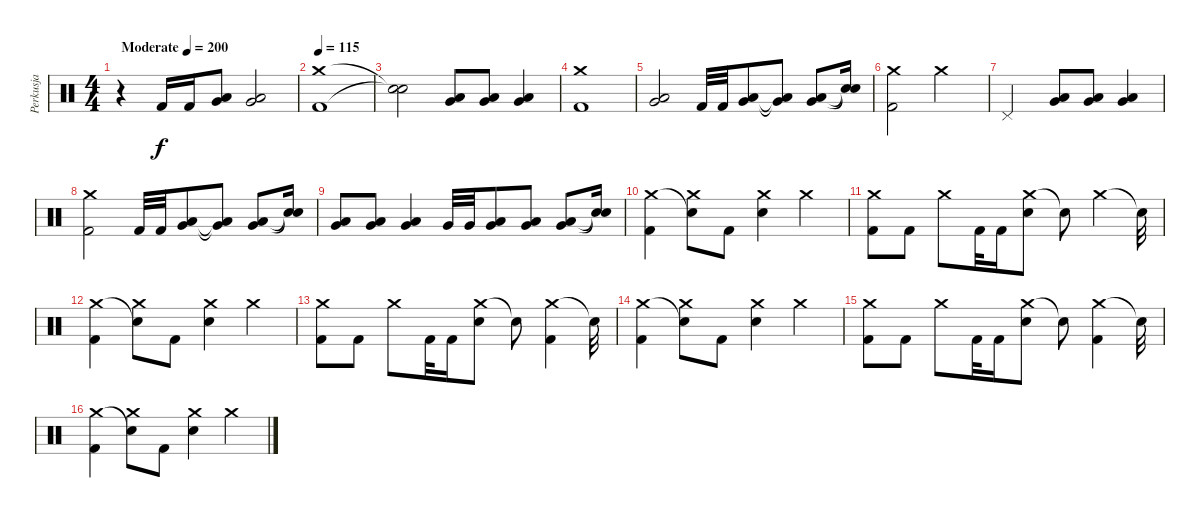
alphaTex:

\track ("Perkusja" "Perkusja") {instrument percussion}
\staff {score}
\articulation defaults
\ts (4 4)
\tempo (200 "Moderate")
\clef neutral
\ks c
r.4{dy f} "Kick (hit) 2".16 "Kick (hit) 2".16 ("Very Low Tom (hit)" "Low Floor Tom (hit)").8 ("Very Low Tom (hit)" "Low Floor Tom (hit)").2 |
\tempo 115
("Crash medium (hit)" "Kick (hit) 2").1 |
("Snare (hit)"{t} "Snare (hit)"{t}).2 ("Low Tom (hit)" "Very Low Tom (hit)").8 ("Low Tom (hit)" "Very Low Tom (hit)").8 ("Low Tom (hit)" "Very Low Tom (hit)").4 |
("Crash medium (hit)" "Kick (hit) 2").1 |
("Low Tom (hit)" "Very Low Tom (hit)").2 "Kick (hit) 2".32 "Kick (hit) 2".32 ("Low Tom (hit)" "Very Low Tom (hit)").8 ("Low Tom (hit)"{t} "Very Low Tom (hit)"{t}).8 ("Low Tom (hit)" "Very Low Tom (hit)").8 ("Snare (hit)"{t} "Snare (hit)"{t}).16 |
("Crash medium (hit)" "Kick (hit) 2").2 "Crash medium (hit)".2 |
"Pedal Hi-Hat (hit)".2 ("Low Tom (hit)" "Very Low Tom (hit)").8 ("Low Tom (hit)" "Very Low Tom (hit)").8 ("Low Tom (hit)" "Very Low Tom (hit)").4 |
("Crash medium (hit)" "Kick (hit) 2").2 "Kick (hit) 2".32 "Kick (hit) 2".32 ("Low Tom (hit)" "Very Low Tom (hit)").8 ("Low Tom (hit)"{t} "Very Low Tom (hit)"{t}).8 ("Low Tom (hit)" "Very Low Tom (hit)").8 ("Snare (hit)"{t} "Snare (hit)"{t}).16 |
("Low Tom (hit)" "Very Low Tom (hit)").8 ("Low Tom (hit)" "Very Low Tom (hit)").8 ("Low Tom (hit)" "Very Low Tom (hit)").4 "Very Low Tom (hit)".32 "Very Low Tom (hit)".32 ("Very Low Tom (hit)" "Low Floor Tom (hit)").8 ("Very Low Tom (hit)" "Low Floor Tom (hit)").8 ("Very Low Tom (hit)" "Low Floor Tom (hit)").8 ("Snare (hit)"{t} "Snare (hit)"{t}).16 |
("Crash medium (hit)" "Kick (hit) 2").4 ("Snare (hit)"{t} "Crash medium (hit)").8 "Kick (hit) 2".8 ("Crash medium (hit)" "Snare (hit) 2").4 "Crash medium (hit)".4 |
("Crash medium (hit)" "Kick (hit) 2").8 "Kick (hit) 2".8 "Crash medium (hit)".8 "Kick (hit) 2".32 "Kick (hit) 2".16 ("Crash medium (hit)" "Snare (hit) 2").8 "Snare (hit)"{t}.8 "Crash medium (hit)".4 "Snare (hit)"{t}.32 |
("Crash medium (hit)" "Kick (hit) 2").4 ("Snare (hit)"{t} "Crash medium (hit)").8 "Kick (hit) 2".8 ("Crash medium (hit)" "Snare (hit) 2").4 "Crash medium (hit)".4 |
("Crash medium (hit)" "Kick (hit) 2").8 "Kick (hit) 2".8 "Crash medium (hit)".8 "Kick (hit) 2".32 "Kick (hit) 2".16 ("Crash medium (hit)" "Snare (hit) 2").8 "Snare (hit)"{t}.8 ("Crash medium (hit)" "Kick (hit) 2").4 "Snare (hit)"{t}.32 |
("Crash medium (hit)" "Kick (hit) 2").4 ("Snare (hit)"{t} "Crash medium (hit)").8 "Kick (hit) 2".8 ("Crash medium (hit)" "Snare (hit) 2").4 "Crash medium (hit)".4 |
("Crash medium (hit)" "Kick (hit) 2").8 "Kick (hit) 2".8 "Crash medium (hit)".8 "Kick (hit) 2".32 "Kick (hit) 2".16 ("Crash medium (hit)" "Snare (hit) 2").8 "Snare (hit)"{t}.8 ("Crash medium (hit)" "Kick (hit) 2").4 "Snare (hit)"{t}.32 |
("Crash medium (hit)" "Kick (hit) 2").4 ("Snare (hit)"{t} "Crash medium (hit)").8 "Kick (hit) 2".8 ("Crash medium (hit)" "Snare (hit) 2").4 "Crash medium (hit)".4
